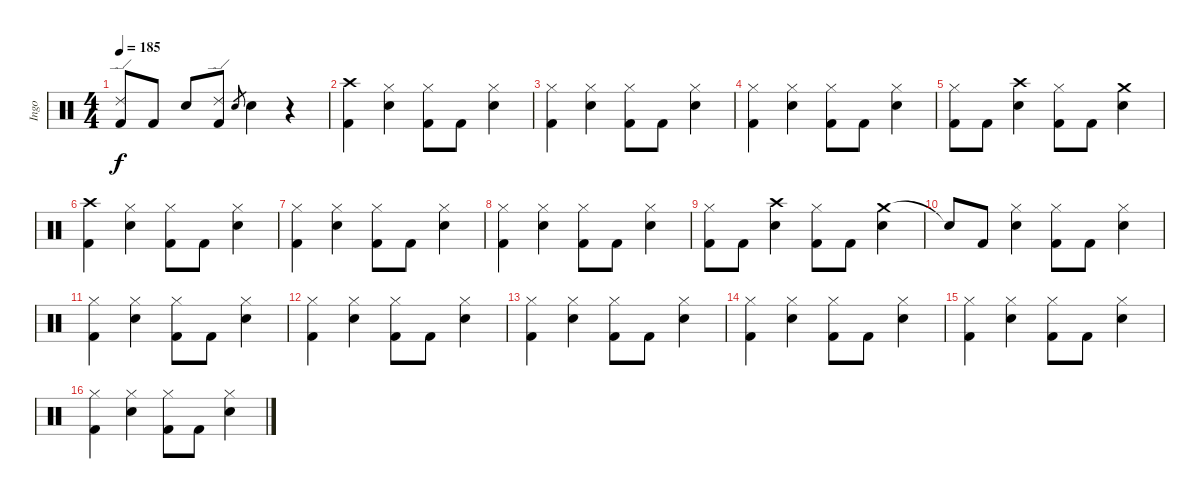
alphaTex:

\track ("Ingo" "Ingo") {instrument percussion}
\staff {score}
\articulation defaults
\ts (4 4)
\tempo 185
\clef neutral
\ks c
("Ride (edge) 2" "Kick (hit) 2").8{dy f} "Kick (hit) 2".8 "Electric Snare (hit)".8 ("Ride (edge) 2" "Kick (hit) 2").8 "Electric Snare (hit)".8{gr} "Electric Snare (hit)".4 r.4 |
("Crash high (hit)" "Kick (hit) 2").4 ("Hi-Hat (closed)" "Electric Snare (hit)").4 ("Hi-Hat (closed)" "Kick (hit) 2").8 "Kick (hit) 2".8 ("Hi-Hat (closed)" "Electric Snare (hit)").4 |
("Hi-Hat (closed)" "Kick (hit) 2").4 ("Hi-Hat (closed)" "Electric Snare (hit)").4 ("Hi-Hat (closed)" "Kick (hit) 2").8 "Kick (hit) 2".8 ("Hi-Hat (closed)" "Electric Snare (hit)").4 |
("Hi-Hat (closed)" "Kick (hit) 2").4 ("Hi-Hat (closed)" "Electric Snare (hit)").4 ("Hi-Hat (closed)" "Kick (hit) 2").8 "Kick (hit) 2".8 ("Hi-Hat (closed)" "Electric Snare (hit)").4 |
("Hi-Hat (closed)" "Kick (hit) 2").8 "Kick (hit) 2".8 ("Crash high (hit)" "Electric Snare (hit)").4 ("Hi-Hat (closed)" "Kick (hit) 2").8 "Kick (hit) 2".8 ("Crash medium (hit)" "Electric Snare (hit)").4 |
("Crash high (hit)" "Kick (hit) 2").4 ("Hi-Hat (closed)" "Electric Snare (hit)").4 ("Hi-Hat (closed)" "Kick (hit) 2").8 "Kick (hit) 2".8 ("Hi-Hat (closed)" "Electric Snare (hit)").4 |
("Hi-Hat (closed)" "Kick (hit) 2").4 ("Hi-Hat (closed)" "Electric Snare (hit)").4 ("Hi-Hat (closed)" "Kick (hit) 2").8 "Kick (hit) 2".8 ("Hi-Hat (closed)" "Electric Snare (hit)").4 |
("Hi-Hat (closed)" "Kick (hit) 2").4 ("Hi-Hat (closed)" "Electric Snare (hit)").4 ("Hi-Hat (closed)" "Kick (hit) 2").8 "Kick (hit) 2".8 ("Hi-Hat (closed)" "Electric Snare (hit)").4 |
("Hi-Hat (closed)" "Kick (hit) 2").8 "Kick (hit) 2".8 ("Crash high (hit)" "Electric Snare (hit)").4 ("Hi-Hat (closed)" "Kick (hit) 2").8 "Kick (hit) 2".8 ("Crash medium (hit)" "Electric Snare (hit)").4 |
"Snare (hit)"{t}.8 "Kick (hit) 2".8 ("Hi-Hat (closed)" "Electric Snare (hit)").4 ("Hi-Hat (closed)" "Kick (hit) 2").8 "Kick (hit) 2".8 ("Hi-Hat (closed)" "Electric Snare (hit)").4 |
("Hi-Hat (closed)" "Kick (hit) 2").4 ("Hi-Hat (closed)" "Electric Snare (hit)").4 ("Hi-Hat (closed)" "Kick (hit) 2").8 "Kick (hit) 2".8 ("Hi-Hat (closed)" "Electric Snare (hit)").4 |
("Hi-Hat (closed)" "Kick (hit) 2").4 ("Hi-Hat (closed)" "Electric Snare (hit)").4 ("Hi-Hat (closed)" "Kick (hit) 2").8 "Kick (hit) 2".8 ("Hi-Hat (closed)" "Electric Snare (hit)").4 |
("Hi-Hat (closed)" "Kick (hit) 2").4 ("Hi-Hat (closed)" "Electric Snare (hit)").4 ("Hi-Hat (closed)" "Kick (hit) 2").8 "Kick (hit) 2".8 ("Hi-Hat (closed)" "Electric Snare (hit)").4 |
("Hi-Hat (closed)" "Kick (hit) 2").4 ("Hi-Hat (closed)" "Electric Snare (hit)").4 ("Hi-Hat (closed)" "Kick (hit) 2").8 "Kick (hit) 2".8 ("Hi-Hat (closed)" "Electric Snare (hit)").4 |
("Hi-Hat (closed)" "Kick (hit) 2").4 ("Hi-Hat (closed)" "Electric Snare (hit)").4 ("Hi-Hat (closed)" "Kick (hit) 2").8 "Kick (hit) 2".8 ("Hi-Hat (closed)" "Electric Snare (hit)").4 |
("Hi-Hat (closed)" "Kick (hit) 2").4 ("Hi-Hat (closed)" "Electric Snare (hit)").4 ("Hi-Hat (closed)" "Kick (hit) 2").8 "Kick (hit) 2".8 ("Hi-Hat (closed)" "Electric Snare (hit)").4
